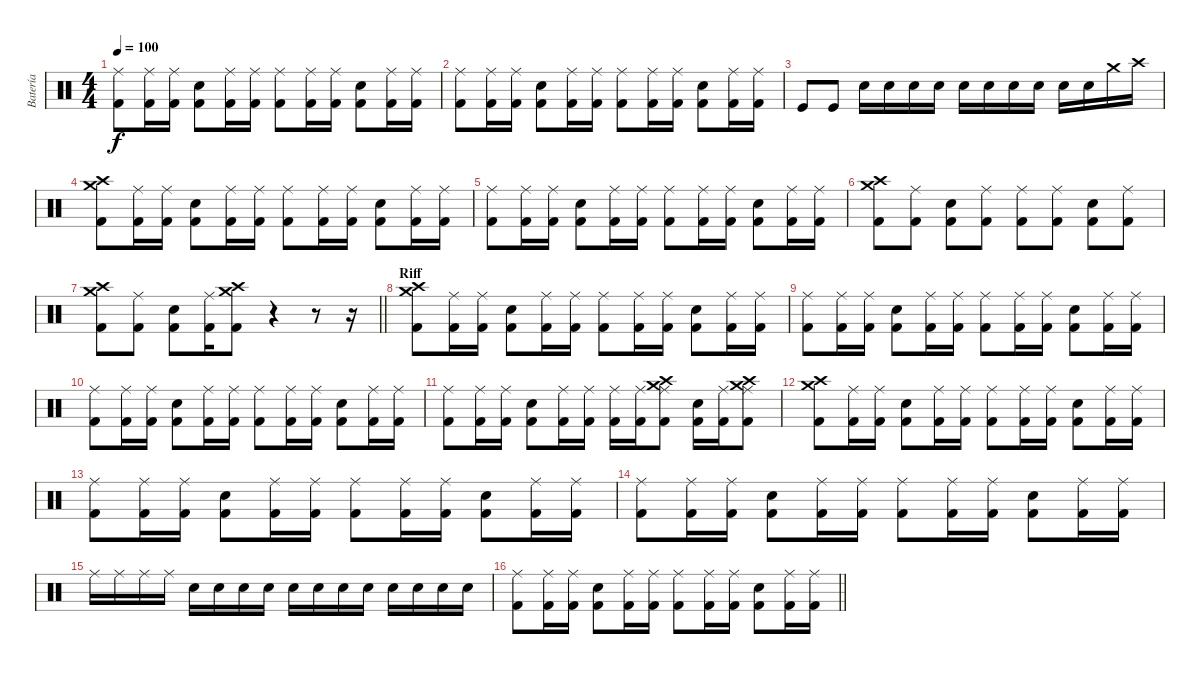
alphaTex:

\track ("Batería" "Batería") {instrument percussion}
\staff {score}
\articulation defaults
\ts (4 4)
\tempo 100
\clef neutral
\ks c
("Ride (middle)" "Kick (hit) 2").8{dy f} ("Ride (middle)" "Kick (hit) 2").16 ("Ride (middle)" "Kick (hit) 2").16 ("Electric Snare (hit)" "Kick (hit) 2").8 ("Ride (middle)" "Kick (hit) 2").16 ("Ride (middle)" "Kick (hit) 2").16 ("Ride (middle)" "Kick (hit) 2").8 ("Ride (middle)" "Kick (hit) 2").16 ("Ride (middle)" "Kick (hit) 2").16 ("Electric Snare (hit)" "Kick (hit) 2").8 ("Ride (middle)" "Kick (hit) 2").16 ("Ride (middle)" "Kick (hit) 2").16 |
("Ride (middle)" "Kick (hit) 2").8 ("Ride (middle)" "Kick (hit) 2").16 ("Ride (middle)" "Kick (hit) 2").16 ("Electric Snare (hit)" "Kick (hit) 2").8 ("Ride (middle)" "Kick (hit) 2").16 ("Ride (middle)" "Kick (hit) 2").16 ("Ride (middle)" "Kick (hit) 2").8 ("Ride (middle)" "Kick (hit) 2").16 ("Ride (middle)" "Kick (hit) 2").16 ("Electric Snare (hit)" "Kick (hit) 2").8 ("Ride (middle)" "Kick (hit) 2").16 ("Ride (middle)" "Kick (hit) 2").16 |
"Kick (hit)".8 "Kick (hit)".8 "Snare (hit) 2".16 "Snare (hit) 2".16 "Snare (hit) 2".16 "Snare (hit) 2".16 "Electric Snare (hit)".16 "Electric Snare (hit)".16 "Electric Snare (hit)".16 "Electric Snare (hit)".16 "Snare (hit) 2".16 "Snare (hit) 2".16 "Crash medium (hit)".16 "Crash high (hit)".16 |
("Crash medium (hit)" "Crash high (hit)" "Kick (hit) 2").8 ("Ride (middle)" "Kick (hit) 2").16 ("Ride (middle)" "Kick (hit) 2").16 ("Electric Snare (hit)" "Kick (hit) 2").8 ("Ride (middle)" "Kick (hit) 2").16 ("Ride (middle)" "Kick (hit) 2").16 ("Ride (middle)" "Kick (hit) 2").8 ("Ride (middle)" "Kick (hit) 2").16 ("Ride (middle)" "Kick (hit) 2").16 ("Electric Snare (hit)" "Kick (hit) 2").8 ("Ride (middle)" "Kick (hit) 2").16 ("Ride (middle)" "Kick (hit) 2").16 |
("Ride (middle)" "Kick (hit) 2").8 ("Ride (middle)" "Kick (hit) 2").16 ("Ride (middle)" "Kick (hit) 2").16 ("Electric Snare (hit)" "Kick (hit) 2").8 ("Ride (middle)" "Kick (hit) 2").16 ("Ride (middle)" "Kick (hit) 2").16 ("Ride (middle)" "Kick (hit) 2").8 ("Ride (middle)" "Kick (hit) 2").16 ("Ride (middle)" "Kick (hit) 2").16 ("Electric Snare (hit)" "Kick (hit) 2").8 ("Ride (middle)" "Kick (hit) 2").16 ("Ride (middle)" "Kick (hit) 2").16 |
("Crash medium (hit)" "Crash high (hit)" "Kick (hit) 2").8 ("Ride (middle)" "Kick (hit) 2").8 ("Electric Snare (hit)" "Kick (hit) 2").8 ("Ride (middle)" "Kick (hit) 2").8 ("Ride (middle)" "Kick (hit) 2").8 ("Ride (middle)" "Kick (hit) 2").8 ("Electric Snare (hit)" "Kick (hit) 2").8 ("Ride (middle)" "Kick (hit) 2").8 |
\barLineRight lightlight
("Crash medium (hit)" "Crash high (hit)" "Kick (hit) 2").8 ("Ride (middle)" "Kick (hit) 2").8 ("Electric Snare (hit)" "Kick (hit) 2").8 ("Ride (middle)" "Kick (hit) 2").16 ("Crash medium (hit)" "Crash high (hit)" "Kick (hit) 2").8 r.4 r.8 r.16 |
\section ("" "Riff")
("Crash medium (hit)" "Crash high (hit)" "Kick (hit) 2").8 ("Ride (middle)" "Kick (hit) 2").16 ("Ride (middle)" "Kick (hit) 2").16 ("Electric Snare (hit)" "Kick (hit) 2").8 ("Ride (middle)" "Kick (hit) 2").16 ("Ride (middle)" "Kick (hit) 2").16 ("Ride (middle)" "Kick (hit) 2").8 ("Ride (middle)" "Kick (hit) 2").16 ("Ride (middle)" "Kick (hit) 2").16 ("Electric Snare (hit)" "Kick (hit) 2").8 ("Ride (middle)" "Kick (hit) 2").16 ("Ride (middle)" "Kick (hit) 2").16 |
("Ride (middle)" "Kick (hit) 2").8 ("Ride (middle)" "Kick (hit) 2").16 ("Ride (middle)" "Kick (hit) 2").16 ("Electric Snare (hit)" "Kick (hit) 2").8 ("Ride (middle)" "Kick (hit) 2").16 ("Ride (middle)" "Kick (hit) 2").16 ("Ride (middle)" "Kick (hit) 2").8 ("Ride (middle)" "Kick (hit) 2").16 ("Ride (middle)" "Kick (hit) 2").16 ("Electric Snare (hit)" "Kick (hit) 2").8 ("Ride (middle)" "Kick (hit) 2").16 ("Ride (middle)" "Kick (hit) 2").16 |
("Ride (middle)" "Kick (hit) 2").8 ("Ride (middle)" "Kick (hit) 2").16 ("Ride (middle)" "Kick (hit) 2").16 ("Electric Snare (hit)" "Kick (hit) 2").8 ("Ride (middle)" "Kick (hit) 2").16 ("Ride (middle)" "Kick (hit) 2").16 ("Ride (middle)" "Kick (hit) 2").8 ("Ride (middle)" "Kick (hit) 2").16 ("Ride (middle)" "Kick (hit) 2").16 ("Electric Snare (hit)" "Kick (hit) 2").8 ("Ride (middle)" "Kick (hit) 2").16 ("Ride (middle)" "Kick (hit) 2").16 |
("Ride (middle)" "Kick (hit) 2").8 ("Ride (middle)" "Kick (hit) 2").16 ("Ride (middle)" "Kick (hit) 2").16 ("Electric Snare (hit)" "Kick (hit) 2").8 ("Ride (middle)" "Kick (hit) 2").16 ("Ride (middle)" "Kick (hit) 2").16 ("Ride (middle)" "Kick (hit) 2").16 ("Ride (middle)" "Kick (hit) 2").16 ("Crash medium (hit)" "Crash high (hit)" "Ride (middle)" "Kick (hit) 2").8 ("Electric Snare (hit)" "Kick (hit) 2").16 ("Ride (middle)" "Kick (hit) 2").16 ("Crash medium (hit)" "Crash high (hit)" "Ride (middle)" "Kick (hit) 2").8 |
("Crash medium (hit)" "Crash high (hit)" "Kick (hit) 2").8 ("Ride (middle)" "Kick (hit) 2").16 ("Ride (middle)" "Kick (hit) 2").16 ("Electric Snare (hit)" "Kick (hit) 2").8 ("Ride (middle)" "Kick (hit) 2").16 ("Ride (middle)" "Kick (hit) 2").16 ("Ride (middle)" "Kick (hit) 2").8 ("Ride (middle)" "Kick (hit) 2").16 ("Ride (middle)" "Kick (hit) 2").16 ("Electric Snare (hit)" "Kick (hit) 2").8 ("Ride (middle)" "Kick (hit) 2").16 ("Ride (middle)" "Kick (hit) 2").16 |
("Ride (middle)" "Kick (hit) 2").8 ("Ride (middle)" "Kick (hit) 2").16 ("Ride (middle)" "Kick (hit) 2").16 ("Electric Snare (hit)" "Kick (hit) 2").8 ("Ride (middle)" "Kick (hit) 2").16 ("Ride (middle)" "Kick (hit) 2").16 ("Ride (middle)" "Kick (hit) 2").8 ("Ride (middle)" "Kick (hit) 2").16 ("Ride (middle)" "Kick (hit) 2").16 ("Electric Snare (hit)" "Kick (hit) 2").8 ("Ride (middle)" "Kick (hit) 2").16 ("Ride (middle)" "Kick (hit) 2").16 |
("Ride (middle)" "Kick (hit) 2").8 ("Ride (middle)" "Kick (hit) 2").16 ("Ride (middle)" "Kick (hit) 2").16 ("Electric Snare (hit)" "Kick (hit) 2").8 ("Ride (middle)" "Kick (hit) 2").16 ("Ride (middle)" "Kick (hit) 2").16 ("Ride (middle)" "Kick (hit) 2").8 ("Ride (middle)" "Kick (hit) 2").16 ("Ride (middle)" "Kick (hit) 2").16 ("Electric Snare (hit)" "Kick (hit) 2").8 ("Ride (middle)" "Kick (hit) 2").16 ("Ride (middle)" "Kick (hit) 2").16 |
"Ride (middle)".16 "Ride (middle)".16 "Ride (middle)".16 "Ride (middle)".16 "Electric Snare (hit)".16 "Electric Snare (hit)".16 "Electric Snare (hit)".16 "Electric Snare (hit)".16 "Snare (hit) 2".16 "Snare (hit) 2".16 "Snare (hit) 2".16 "Snare (hit) 2".16 "Electric Snare (hit)".16 "Electric Snare (hit)".16 "Electric Snare (hit)".16 "Electric Snare (hit)".16 |
\barLineRight lightlight
("Ride (middle)" "Kick (hit) 2").8 ("Ride (middle)" "Kick (hit) 2").16 ("Ride (middle)" "Kick (hit) 2").16 ("Electric Snare (hit)" "Kick (hit) 2").8 ("Ride (middle)" "Kick (hit) 2").16 ("Ride (middle)" "Kick (hit) 2").16 ("Ride (middle)" "Kick (hit) 2").8 ("Ride (middle)" "Kick (hit) 2").16 ("Ride (middle)" "Kick (hit) 2").16 ("Electric Snare (hit)" "Kick (hit) 2").8 ("Ride (middle)" "Kick (hit) 2").16 ("Ride (middle)" "Kick (hit) 2").16
